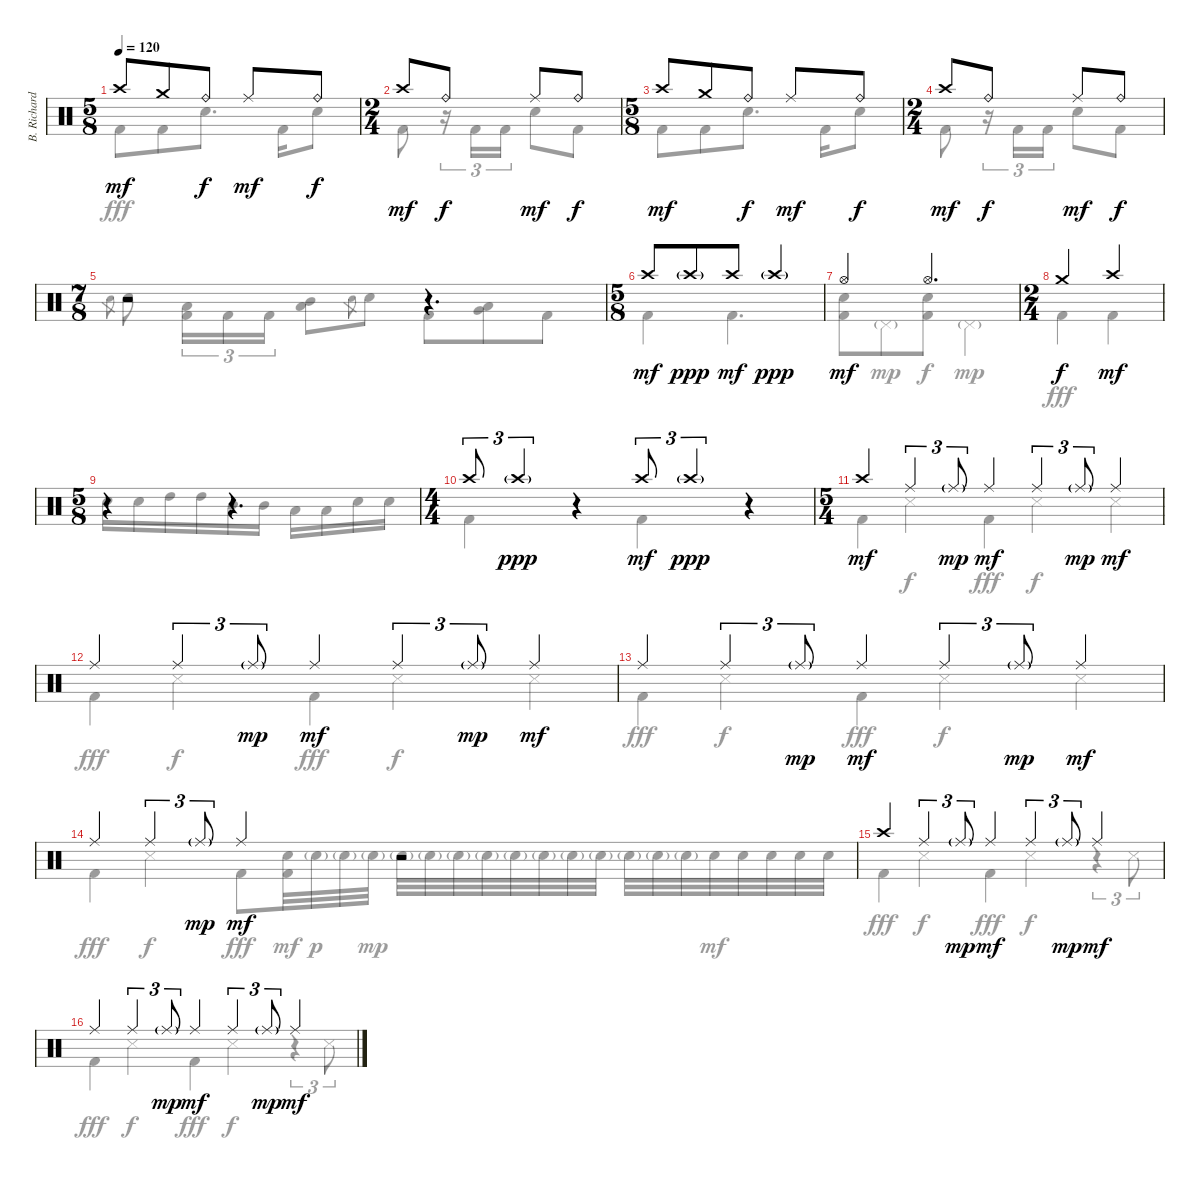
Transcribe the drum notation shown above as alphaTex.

\track ("B. Richardson Drums" "B. Richard") {instrument percussion}
\staff {score}
\articulation defaults
\voice
\ts (5 8)
\tempo 120
\clef neutral
\ks c "Crash high (hit)".8{dy mf} "Crash medium (hit)".8 "Ride (bell)".8{dy f} "Ride (middle)".8{dy mf} "Ride (bell)".8{dy f}
|
\ts (2 4)
"Crash high (hit)".8{dy mf} "Ride (bell)".8{dy f} "Ride (middle)".8{dy mf} "Ride (bell)".8{dy f} |
\ts (5 8)
"Crash high (hit)".8{dy mf} "Crash medium (hit)".8 "Ride (bell)".8{dy f} "Ride (middle)".8{dy mf} "Ride (bell)".8{dy f} |
\ts (2 4)
"Crash high (hit)".8{dy mf} "Ride (bell)".8{dy f} "Ride (middle)".8{dy mf} "Ride (bell)".8{dy f} |
\ts (7 8)
r.2 r.4{d} |
\ts (5 8)
"Crash high (hit)".8{dy mf} "Crash high (hit)"{g}.8{dy ppp} "Crash high (hit)".8{dy mf} "Crash high (hit)"{g}.4{dy ppp} |
"Hi-Hat (open)".4{dy mf} "Hi-Hat (open)".4{d} |
\ts (2 4)
"Crash medium (hit)".4{dy f} "Crash high (hit)".4{dy mf} |
\ts (5 8)
r.4 r.4{d} |
\ts (4 4)
"Crash high (hit)".8{tu (3 2)} "Crash high (hit)"{g}.4{tu (3 2) dy ppp} r.4 "Crash high (hit)".8{tu (3 2) dy mf} "Crash high (hit)"{g}.4{tu (3 2) dy ppp} r.4 |
\ts (5 4)
"Crash high (hit)".4{dy mf} "Ride (middle)".4{tu (3 2)} "Ride (middle)"{g}.8{tu (3 2) dy mp} "Ride (middle)".4{dy mf} "Ride (middle)".4{tu (3 2)} "Ride (middle)"{g}.8{tu (3 2) dy mp} "Ride (middle)".4{dy mf} |
"Ride (middle)".4 "Ride (middle)".4{tu (3 2)} "Ride (middle)"{g}.8{tu (3 2) dy mp} "Ride (middle)".4{dy mf} "Ride (middle)".4{tu (3 2)} "Ride (middle)"{g}.8{tu (3 2) dy mp} "Ride (middle)".4{dy mf} |
"Ride (middle)".4 "Ride (middle)".4{tu (3 2)} "Ride (middle)"{g}.8{tu (3 2) dy mp} "Ride (middle)".4{dy mf} "Ride (middle)".4{tu (3 2)} "Ride (middle)"{g}.8{tu (3 2) dy mp} "Ride (middle)".4{dy mf} |
"Ride (middle)".4 "Ride (middle)".4{tu (3 2)} "Ride (middle)"{g}.8{tu (3 2) dy mp} "Ride (middle)".4{dy mf} r.2 |
"Crash high (hit)".4 "Ride (middle)".4{tu (3 2)} "Ride (middle)"{g}.8{tu (3 2) dy mp} "Ride (middle)".4{dy mf} "Ride (middle)".4{tu (3 2)} "Ride (middle)"{g}.8{tu (3 2) dy mp} "Ride (middle)".4{dy mf} |
"Ride (middle)".4 "Ride (middle)".4{tu (3 2)} "Ride (middle)"{g}.8{tu (3 2) dy mp} "Ride (middle)".4{dy mf} "Ride (middle)".4{tu (3 2)} "Ride (middle)"{g}.8{tu (3 2) dy mp} "Ride (middle)".4{dy mf}
\voice
\clef neutral
\ottava regular
\simile none
\ks c "Kick (hit) 2".8{dy fff} "Kick (hit) 2".8 "Electric Snare (hit)".8{d} "Kick (hit) 2".16 "Electric Snare (hit)".8
|
"Kick (hit) 2".8 r.16{tu (3 2)} "Kick (hit) 2".16{tu (3 2)} "Kick (hit) 2".16{tu (3 2)} "Electric Snare (hit)".8 "Kick (hit) 2".8 |
"Kick (hit) 2".8 "Kick (hit) 2".8 "Electric Snare (hit)".8{d} "Kick (hit) 2".16 "Electric Snare (hit)".8 |
"Kick (hit) 2".8 r.16{tu (3 2)} "Kick (hit) 2".16{tu (3 2)} "Kick (hit) 2".16{tu (3 2)} "Electric Snare (hit)".8 "Kick (hit) 2".8 |
"Electric Snare (hit)".8{gr} "Electric Snare (hit)".8 ("Low Tom (hit)" "Kick (hit) 2").16{tu (3 2)} "Kick (hit) 2".16{tu (3 2)} "Kick (hit) 2".16{tu (3 2)} ("Mid Tom (hit)" "Low Tom (hit)").8 "Electric Snare (hit)".8{gr} "Electric Snare (hit)".8 "Kick (hit) 2".8 ("Low Tom (hit)" "Very Low Tom (hit)").8 "Kick (hit) 2".8 |
"Kick (hit) 2".4 "Kick (hit) 2".4{d} |
("Electric Snare (hit)" "Kick (hit) 2").8 "Pedal Hi-Hat (hit)"{g}.8{dy mp} ("Electric Snare (hit)" "Kick (hit) 2").8{dy f} "Pedal Hi-Hat (hit)"{g}.4{dy mp} |
"Kick (hit) 2".4{dy fff} "Kick (hit) 2".4 |
"Electric Snare (hit)".16 "Electric Snare (hit)".16 "High Tom (hit)".16 "High Tom (hit)".16 "Mid Tom (hit)".16 "Mid Tom (hit)".16 "Low Tom (hit)".16 "Low Tom (hit)".16 "Electric Snare (hit)".16 "Electric Snare (hit)".16 |
"Kick (hit) 2".4 r.4 "Kick (hit) 2".4 r.4 |
"Kick (hit) 2".4 "Snare (side stick) 3".4{dy f} "Kick (hit) 2".4{dy fff} "Snare (side stick) 3".4{dy f} "Snare (side stick) 3".4 |
"Kick (hit) 2".4{dy fff} "Snare (side stick) 3".4{dy f} "Kick (hit) 2".4{dy fff} "Snare (side stick) 3".4{dy f} "Snare (side stick) 3".4 |
"Kick (hit) 2".4{dy fff} "Snare (side stick) 3".4{dy f} "Kick (hit) 2".4{dy fff} "Snare (side stick) 3".4{dy f} "Snare (side stick) 3".4 |
"Kick (hit) 2".4{dy fff} "Snare (side stick) 3".4{dy f} "Kick (hit) 2".8{dy fff} ("Electric Snare (hit)" "Kick (hit) 2").32{dy mf} "Electric Snare (hit)"{g}.32{dy p} "Electric Snare (hit)"{g}.32 "Electric Snare (hit)"{g}.32{dy mp} "Electric Snare (hit)"{g}.32 "Electric Snare (hit)"{g}.32 "Electric Snare (hit)"{g}.32 "Electric Snare (hit)"{g}.32 "Electric Snare (hit)"{g}.32 "Electric Snare (hit)"{g}.32 "Electric Snare (hit)"{g}.32 "Electric Snare (hit)"{g}.32 "Electric Snare (hit)"{g}.32 "Electric Snare (hit)"{g}.32 "Electric Snare (hit)"{g}.32 "Electric Snare (hit)".32{dy mf} "Electric Snare (hit)".32 "Electric Snare (hit)".32 "Electric Snare (hit)".32 "Electric Snare (hit)".32 |
"Kick (hit) 2".4{dy fff} "Snare (side stick) 3".4{dy f} "Kick (hit) 2".4{dy fff} "Snare (side stick) 3".4{dy f} r.4{tu (3 2)} "Snare (side stick) 3".8{tu (3 2)} |
"Kick (hit) 2".4{dy fff} "Snare (side stick) 3".4{dy f} "Kick (hit) 2".4{dy fff} "Snare (side stick) 3".4{dy f} r.4{tu (3 2)} "Snare (side stick) 3".8{tu (3 2)}
